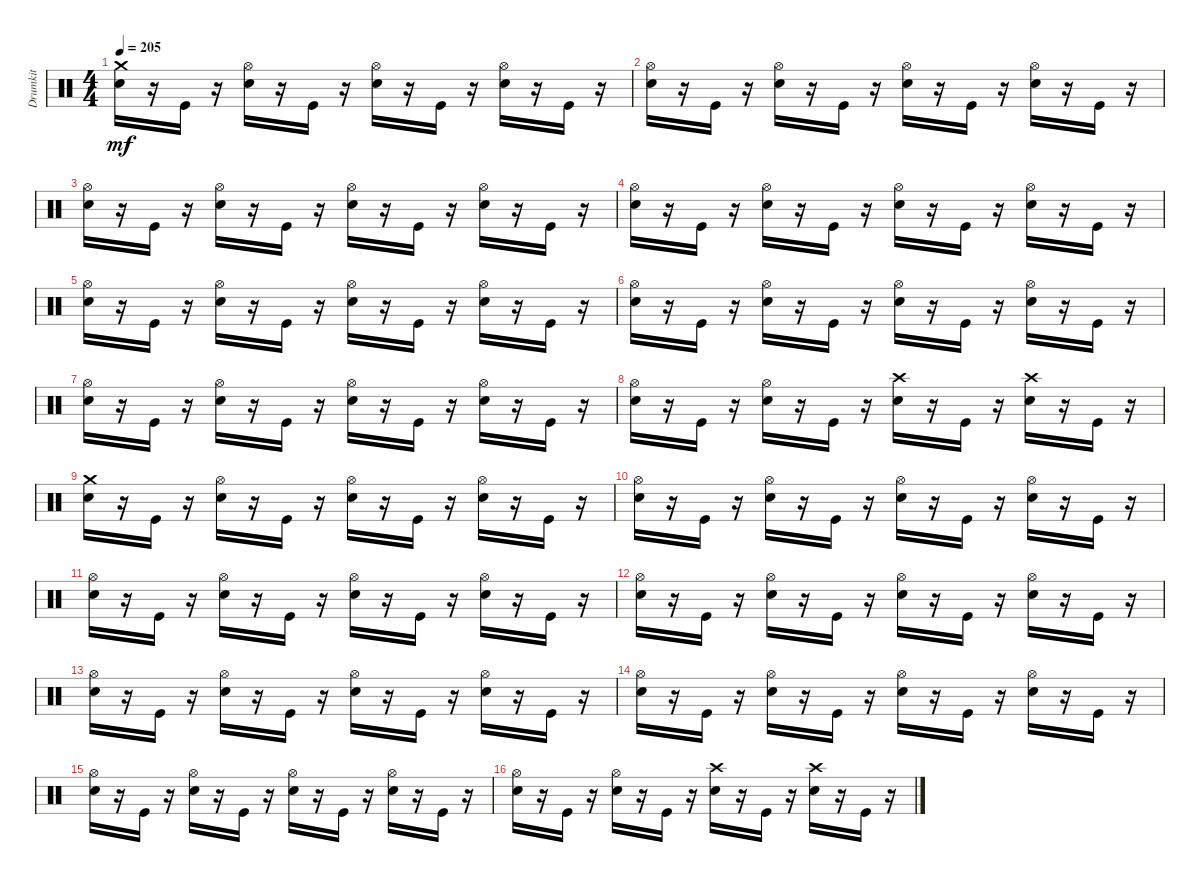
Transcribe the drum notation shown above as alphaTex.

\track ("Drumkit" "Drumkit") {instrument percussion}
\staff {score}
\articulation defaults
\ts (4 4)
\tempo 205
\clef neutral
\ks c
("Snare (hit) 2" "Crash medium (hit)").16{dy mf} r.16 "Kick (hit)".16 r.16 ("Snare (hit) 2" "Hi-Hat (open)").16 r.16 "Kick (hit)".16 r.16 ("Snare (hit) 2" "Hi-Hat (open)").16 r.16 "Kick (hit)".16 r.16 ("Snare (hit) 2" "Hi-Hat (open)").16 r.16 "Kick (hit)".16 r.16 |
("Snare (hit) 2" "Hi-Hat (open)").16 r.16 "Kick (hit)".16 r.16 ("Snare (hit) 2" "Hi-Hat (open)").16 r.16 "Kick (hit)".16 r.16 ("Snare (hit) 2" "Hi-Hat (open)").16 r.16 "Kick (hit)".16 r.16 ("Snare (hit) 2" "Hi-Hat (open)").16 r.16 "Kick (hit)".16 r.16 |
("Snare (hit) 2" "Hi-Hat (open)").16 r.16 "Kick (hit)".16 r.16 ("Snare (hit) 2" "Hi-Hat (open)").16 r.16 "Kick (hit)".16 r.16 ("Snare (hit) 2" "Hi-Hat (open)").16 r.16 "Kick (hit)".16 r.16 ("Snare (hit) 2" "Hi-Hat (open)").16 r.16 "Kick (hit)".16 r.16 |
("Snare (hit) 2" "Hi-Hat (open)").16 r.16 "Kick (hit)".16 r.16 ("Snare (hit) 2" "Hi-Hat (open)").16 r.16 "Kick (hit)".16 r.16 ("Snare (hit) 2" "Hi-Hat (open)").16 r.16 "Kick (hit)".16 r.16 ("Snare (hit) 2" "Hi-Hat (open)").16 r.16 "Kick (hit)".16 r.16 |
("Snare (hit) 2" "Hi-Hat (open)").16 r.16 "Kick (hit)".16 r.16 ("Snare (hit) 2" "Hi-Hat (open)").16 r.16 "Kick (hit)".16 r.16 ("Snare (hit) 2" "Hi-Hat (open)").16 r.16 "Kick (hit)".16 r.16 ("Snare (hit) 2" "Hi-Hat (open)").16 r.16 "Kick (hit)".16 r.16 |
("Snare (hit) 2" "Hi-Hat (open)").16 r.16 "Kick (hit)".16 r.16 ("Snare (hit) 2" "Hi-Hat (open)").16 r.16 "Kick (hit)".16 r.16 ("Snare (hit) 2" "Hi-Hat (open)").16 r.16 "Kick (hit)".16 r.16 ("Snare (hit) 2" "Hi-Hat (open)").16 r.16 "Kick (hit)".16 r.16 |
("Snare (hit) 2" "Hi-Hat (open)").16 r.16 "Kick (hit)".16 r.16 ("Snare (hit) 2" "Hi-Hat (open)").16 r.16 "Kick (hit)".16 r.16 ("Snare (hit) 2" "Hi-Hat (open)").16 r.16 "Kick (hit)".16 r.16 ("Snare (hit) 2" "Hi-Hat (open)").16 r.16 "Kick (hit)".16 r.16 |
("Snare (hit) 2" "Hi-Hat (open)").16 r.16 "Kick (hit)".16 r.16 ("Snare (hit) 2" "Hi-Hat (open)").16 r.16 "Kick (hit)".16 r.16 ("Snare (hit) 2" "Crash high (hit)").16 r.16 "Kick (hit)".16 r.16 ("Snare (hit) 2" "Crash high (hit)").16 r.16 "Kick (hit)".16 r.16 |
("Snare (hit) 2" "Crash medium (hit)").16 r.16 "Kick (hit)".16 r.16 ("Snare (hit) 2" "Hi-Hat (open)").16 r.16 "Kick (hit)".16 r.16 ("Snare (hit) 2" "Hi-Hat (open)").16 r.16 "Kick (hit)".16 r.16 ("Snare (hit) 2" "Hi-Hat (open)").16 r.16 "Kick (hit)".16 r.16 |
("Snare (hit) 2" "Hi-Hat (open)").16 r.16 "Kick (hit)".16 r.16 ("Snare (hit) 2" "Hi-Hat (open)").16 r.16 "Kick (hit)".16 r.16 ("Snare (hit) 2" "Hi-Hat (open)").16 r.16 "Kick (hit)".16 r.16 ("Snare (hit) 2" "Hi-Hat (open)").16 r.16 "Kick (hit)".16 r.16 |
("Snare (hit) 2" "Hi-Hat (open)").16 r.16 "Kick (hit)".16 r.16 ("Snare (hit) 2" "Hi-Hat (open)").16 r.16 "Kick (hit)".16 r.16 ("Snare (hit) 2" "Hi-Hat (open)").16 r.16 "Kick (hit)".16 r.16 ("Snare (hit) 2" "Hi-Hat (open)").16 r.16 "Kick (hit)".16 r.16 |
("Snare (hit) 2" "Hi-Hat (open)").16 r.16 "Kick (hit)".16 r.16 ("Snare (hit) 2" "Hi-Hat (open)").16 r.16 "Kick (hit)".16 r.16 ("Snare (hit) 2" "Hi-Hat (open)").16 r.16 "Kick (hit)".16 r.16 ("Snare (hit) 2" "Hi-Hat (open)").16 r.16 "Kick (hit)".16 r.16 |
("Snare (hit) 2" "Hi-Hat (open)").16 r.16 "Kick (hit)".16 r.16 ("Snare (hit) 2" "Hi-Hat (open)").16 r.16 "Kick (hit)".16 r.16 ("Snare (hit) 2" "Hi-Hat (open)").16 r.16 "Kick (hit)".16 r.16 ("Snare (hit) 2" "Hi-Hat (open)").16 r.16 "Kick (hit)".16 r.16 |
("Snare (hit) 2" "Hi-Hat (open)").16 r.16 "Kick (hit)".16 r.16 ("Snare (hit) 2" "Hi-Hat (open)").16 r.16 "Kick (hit)".16 r.16 ("Snare (hit) 2" "Hi-Hat (open)").16 r.16 "Kick (hit)".16 r.16 ("Snare (hit) 2" "Hi-Hat (open)").16 r.16 "Kick (hit)".16 r.16 |
("Snare (hit) 2" "Hi-Hat (open)").16 r.16 "Kick (hit)".16 r.16 ("Snare (hit) 2" "Hi-Hat (open)").16 r.16 "Kick (hit)".16 r.16 ("Snare (hit) 2" "Hi-Hat (open)").16 r.16 "Kick (hit)".16 r.16 ("Snare (hit) 2" "Hi-Hat (open)").16 r.16 "Kick (hit)".16 r.16 |
("Snare (hit) 2" "Hi-Hat (open)").16 r.16 "Kick (hit)".16 r.16 ("Snare (hit) 2" "Hi-Hat (open)").16 r.16 "Kick (hit)".16 r.16 ("Snare (hit) 2" "Crash high (hit)").16 r.16 "Kick (hit)".16 r.16 ("Snare (hit) 2" "Crash high (hit)").16 r.16 "Kick (hit)".16 r.16
